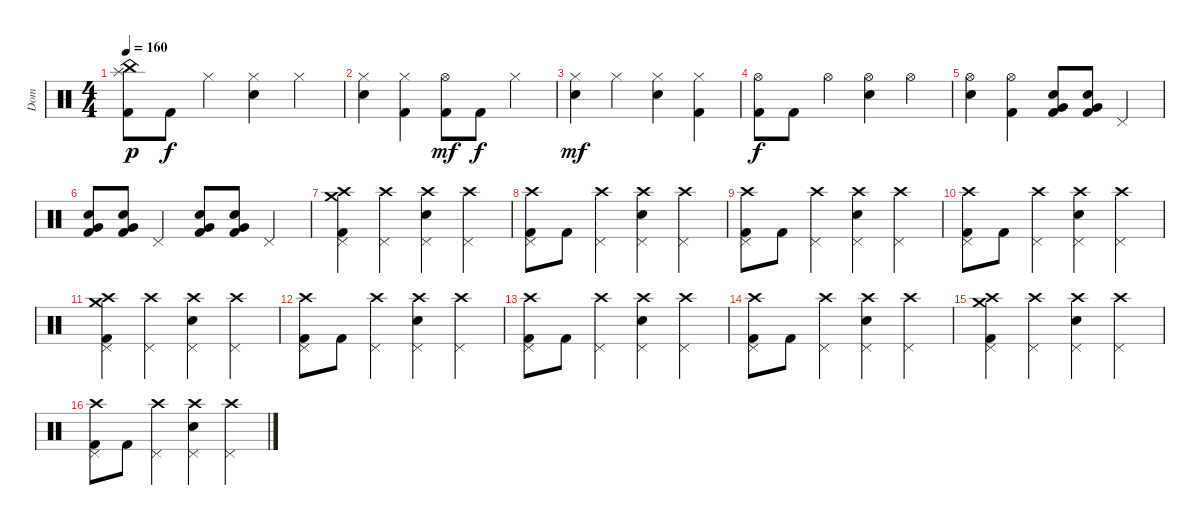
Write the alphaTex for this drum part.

\track ("Dom" "Dom") {instrument percussion}
\staff {score}
\articulation defaults
\ts (4 4)
\tempo 160
\clef neutral
\ks c
("Splash (hit)" "Kick (hit) 2" "China (hit)").8{dy p} "Kick (hit) 2".8{dy f} "Hi-Hat (closed)".4 ("Hi-Hat (closed)" "Snare (hit) 2").4 "Hi-Hat (closed)".4 |
("Hi-Hat (closed)" "Snare (hit) 2").4 ("Hi-Hat (closed)" "Kick (hit) 2").4 ("Hi-Hat (open)" "Kick (hit) 2").8{dy mf} "Kick (hit) 2".8{dy f} "Hi-Hat (closed)".4 |
("Hi-Hat (closed)" "Snare (hit) 2").4{dy mf} "Hi-Hat (closed)".4 ("Hi-Hat (closed)" "Snare (hit) 2").4 ("Hi-Hat (closed)" "Kick (hit) 2").4 |
("Hi-Hat (open)" "Kick (hit) 2").8{dy f} "Kick (hit) 2".8 "Hi-Hat (open)".4 ("Hi-Hat (open)" "Snare (hit) 2").4 "Hi-Hat (open)".4 |
("Hi-Hat (open)" "Snare (hit) 2").4 ("Hi-Hat (open)" "Kick (hit) 2").4 ("Very Low Tom (hit)" "Kick (hit) 2" "Snare (hit) 2").8 ("Very Low Tom (hit)" "Kick (hit) 2" "Snare (hit) 2").8 "Pedal Hi-Hat (hit)".4 |
("Very Low Tom (hit)" "Kick (hit) 2" "Snare (hit) 2").8 ("Very Low Tom (hit)" "Kick (hit) 2" "Snare (hit) 2").8 "Pedal Hi-Hat (hit)".4 ("Very Low Tom (hit)" "Kick (hit) 2" "Snare (hit) 2").8 ("Very Low Tom (hit)" "Kick (hit) 2" "Snare (hit) 2").8 "Pedal Hi-Hat (hit)".4 |
("Crash high (hit)" "Kick (hit) 2" "Crash medium (hit)" "Pedal Hi-Hat (hit)").4 ("Crash high (hit)" "Pedal Hi-Hat (hit)").4 ("Crash high (hit)" "Snare (hit) 2" "Pedal Hi-Hat (hit)").4 ("Crash high (hit)" "Pedal Hi-Hat (hit)").4 |
("Crash high (hit)" "Kick (hit) 2" "Pedal Hi-Hat (hit)").8 "Kick (hit) 2".8 ("Crash high (hit)" "Pedal Hi-Hat (hit)").4 ("Crash high (hit)" "Snare (hit) 2" "Pedal Hi-Hat (hit)").4 ("Crash high (hit)" "Pedal Hi-Hat (hit)").4 |
("Crash high (hit)" "Kick (hit) 2" "Pedal Hi-Hat (hit)").8 "Kick (hit) 2".8 ("Crash high (hit)" "Pedal Hi-Hat (hit)").4 ("Crash high (hit)" "Snare (hit) 2" "Pedal Hi-Hat (hit)").4 ("Crash high (hit)" "Pedal Hi-Hat (hit)").4 |
("Crash high (hit)" "Kick (hit) 2" "Pedal Hi-Hat (hit)").8 "Kick (hit) 2".8 ("Crash high (hit)" "Pedal Hi-Hat (hit)").4 ("Crash high (hit)" "Snare (hit) 2" "Pedal Hi-Hat (hit)").4 ("Crash high (hit)" "Pedal Hi-Hat (hit)").4 |
("Crash high (hit)" "Kick (hit) 2" "Crash medium (hit)" "Pedal Hi-Hat (hit)").4 ("Crash high (hit)" "Pedal Hi-Hat (hit)").4 ("Crash high (hit)" "Snare (hit) 2" "Pedal Hi-Hat (hit)").4 ("Crash high (hit)" "Pedal Hi-Hat (hit)").4 |
("Crash high (hit)" "Kick (hit) 2" "Pedal Hi-Hat (hit)").8 "Kick (hit) 2".8 ("Crash high (hit)" "Pedal Hi-Hat (hit)").4 ("Crash high (hit)" "Snare (hit) 2" "Pedal Hi-Hat (hit)").4 ("Crash high (hit)" "Pedal Hi-Hat (hit)").4 |
("Crash high (hit)" "Kick (hit) 2" "Pedal Hi-Hat (hit)").8 "Kick (hit) 2".8 ("Crash high (hit)" "Pedal Hi-Hat (hit)").4 ("Crash high (hit)" "Snare (hit) 2" "Pedal Hi-Hat (hit)").4 ("Crash high (hit)" "Pedal Hi-Hat (hit)").4 |
("Crash high (hit)" "Kick (hit) 2" "Pedal Hi-Hat (hit)").8 "Kick (hit) 2".8 ("Crash high (hit)" "Pedal Hi-Hat (hit)").4 ("Crash high (hit)" "Snare (hit) 2" "Pedal Hi-Hat (hit)").4 ("Crash high (hit)" "Pedal Hi-Hat (hit)").4 |
("Crash high (hit)" "Kick (hit) 2" "Crash medium (hit)" "Pedal Hi-Hat (hit)").4 ("Crash high (hit)" "Pedal Hi-Hat (hit)").4 ("Crash high (hit)" "Snare (hit) 2" "Pedal Hi-Hat (hit)").4 ("Crash high (hit)" "Pedal Hi-Hat (hit)").4 |
("Crash high (hit)" "Kick (hit) 2" "Pedal Hi-Hat (hit)").8 "Kick (hit) 2".8 ("Crash high (hit)" "Pedal Hi-Hat (hit)").4 ("Crash high (hit)" "Snare (hit) 2" "Pedal Hi-Hat (hit)").4 ("Crash high (hit)" "Pedal Hi-Hat (hit)").4
